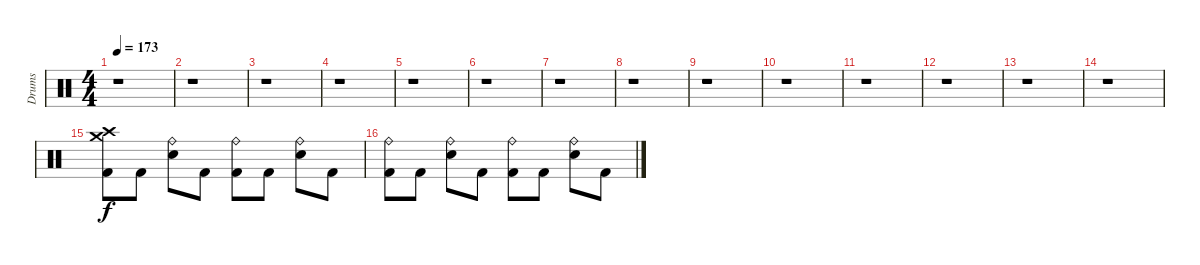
\track ("Drums" "Drums") {instrument percussion}
\staff {score}
\articulation defaults
\ts (4 4)
\tempo 173
\clef neutral
\ks c
r.1{dy f} |
r.1 |
r.1 |
r.1 |
r.1 |
r.1 |
r.1 |
r.1 |
r.1 |
r.1 |
r.1 |
r.1 |
r.1 |
r.1 |
("Crash high (hit)" "Crash medium (hit)" "Kick (hit) 2").8 "Kick (hit) 2".8 ("Ride (bell)" "Snare (hit) 2").8 "Kick (hit) 2".8 ("Ride (bell)" "Kick (hit) 2").8 "Kick (hit) 2".8 ("Ride (bell)" "Snare (hit) 2").8 "Kick (hit) 2".8 |
("Ride (bell)" "Kick (hit) 2").8 "Kick (hit) 2".8 ("Ride (bell)" "Snare (hit) 2").8 "Kick (hit) 2".8 ("Ride (bell)" "Kick (hit) 2").8 "Kick (hit) 2".8 ("Ride (bell)" "Snare (hit) 2").8 "Kick (hit) 2".8
